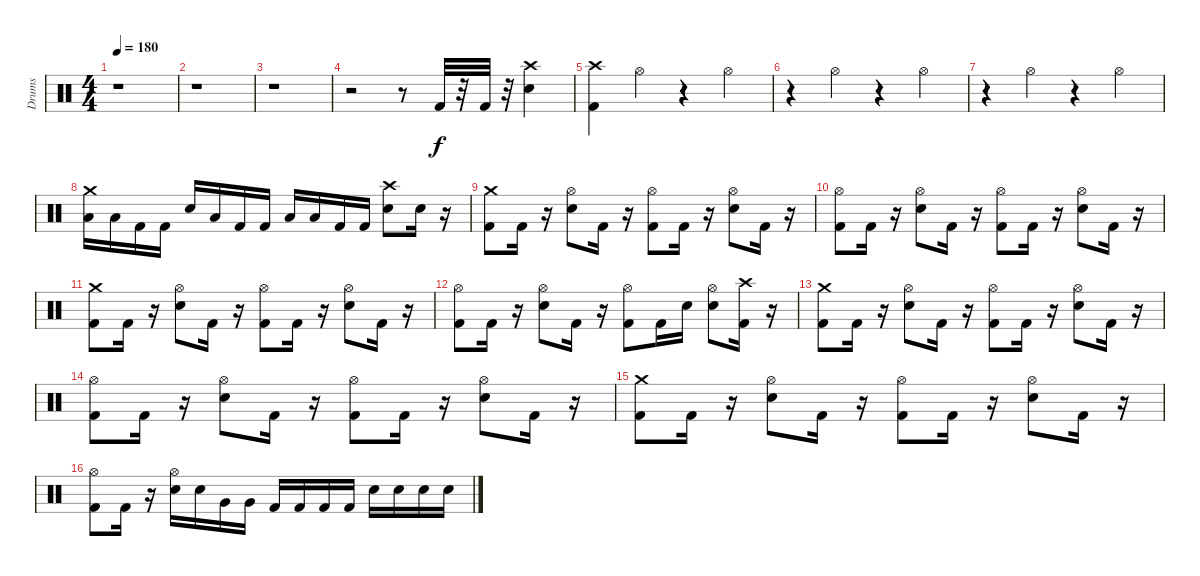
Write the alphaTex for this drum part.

\track ("Drums" "Drums") {instrument percussion}
\staff {score}
\articulation defaults
\ts (4 4)
\tempo 180
\clef neutral
\ks c
r.1{dy f} |
r.1 |
r.1 |
r.2 r.8 "Kick (hit) 2".32 r.32 "Kick (hit) 2".32 r.32 ("Crash high (hit)" "Electric Snare (hit)").4 |
("Kick (hit) 2" "Crash high (hit)").4 "Hi-Hat (open)".4 r.4 "Hi-Hat (open)".4 |
r.4 "Hi-Hat (open)".4 r.4 "Hi-Hat (open)".4 |
r.4 "Hi-Hat (open)".4 r.4 "Hi-Hat (open)".4 |
("Low Tom (hit)" "Crash medium (hit)").16 "Low Tom (hit)".16 "Kick (hit) 2".16 "Kick (hit) 2".16 "Electric Snare (hit)".16 "Low Tom (hit)".16 "Kick (hit) 2".16 "Kick (hit) 2".16 "Low Tom (hit)".16 "Low Tom (hit)".16 "Kick (hit) 2".16 "Kick (hit) 2".16 ("Crash high (hit)" "Electric Snare (hit)").8 "Electric Snare (hit)".16 r.16 |
("Kick (hit) 2" "Crash medium (hit)").8 "Kick (hit) 2".16 r.16 ("Electric Snare (hit)" "Hi-Hat (open)").8 "Kick (hit) 2".16 r.16 ("Kick (hit) 2" "Hi-Hat (open)").8 "Kick (hit) 2".16 r.16 ("Electric Snare (hit)" "Hi-Hat (open)").8 "Kick (hit) 2".16 r.16 |
("Kick (hit) 2" "Hi-Hat (open)").8 "Kick (hit) 2".16 r.16 ("Electric Snare (hit)" "Hi-Hat (open)").8 "Kick (hit) 2".16 r.16 ("Kick (hit) 2" "Hi-Hat (open)").8 "Kick (hit) 2".16 r.16 ("Electric Snare (hit)" "Hi-Hat (open)").8 "Kick (hit) 2".16 r.16 |
("Kick (hit) 2" "Crash medium (hit)").8 "Kick (hit) 2".16 r.16 ("Electric Snare (hit)" "Hi-Hat (open)").8 "Kick (hit) 2".16 r.16 ("Kick (hit) 2" "Hi-Hat (open)").8 "Kick (hit) 2".16 r.16 ("Electric Snare (hit)" "Hi-Hat (open)").8 "Kick (hit) 2".16 r.16 |
("Kick (hit) 2" "Hi-Hat (open)").8 "Kick (hit) 2".16 r.16 ("Electric Snare (hit)" "Hi-Hat (open)").8 "Kick (hit) 2".16 r.16 ("Kick (hit) 2" "Hi-Hat (open)").8 "Kick (hit) 2".16 "Electric Snare (hit)".16 ("Electric Snare (hit)" "Hi-Hat (open)").8 ("Crash high (hit)" "Kick (hit) 2").16 r.16 |
("Kick (hit) 2" "Crash medium (hit)").8 "Kick (hit) 2".16 r.16 ("Electric Snare (hit)" "Hi-Hat (open)").8 "Kick (hit) 2".16 r.16 ("Kick (hit) 2" "Hi-Hat (open)").8 "Kick (hit) 2".16 r.16 ("Electric Snare (hit)" "Hi-Hat (open)").8 "Kick (hit) 2".16 r.16 |
("Kick (hit) 2" "Hi-Hat (open)").8 "Kick (hit) 2".16 r.16 ("Electric Snare (hit)" "Hi-Hat (open)").8 "Kick (hit) 2".16 r.16 ("Kick (hit) 2" "Hi-Hat (open)").8 "Kick (hit) 2".16 r.16 ("Electric Snare (hit)" "Hi-Hat (open)").8 "Kick (hit) 2".16 r.16 |
("Kick (hit) 2" "Crash medium (hit)").8 "Kick (hit) 2".16 r.16 ("Electric Snare (hit)" "Hi-Hat (open)").8 "Kick (hit) 2".16 r.16 ("Kick (hit) 2" "Hi-Hat (open)").8 "Kick (hit) 2".16 r.16 ("Electric Snare (hit)" "Hi-Hat (open)").8 "Kick (hit) 2".16 r.16 |
("Kick (hit) 2" "Hi-Hat (open)").8 "Kick (hit) 2".16 r.16 ("Electric Snare (hit)" "Hi-Hat (open)").16 "Electric Snare (hit)".16 "Very Low Tom (hit)".16 "Very Low Tom (hit)".16 "Kick (hit) 2".16 "Kick (hit) 2".16 "Kick (hit) 2".16 "Kick (hit) 2".16 "Electric Snare (hit)".16 "Electric Snare (hit)".16 "Electric Snare (hit)".16 "Electric Snare (hit)".16
